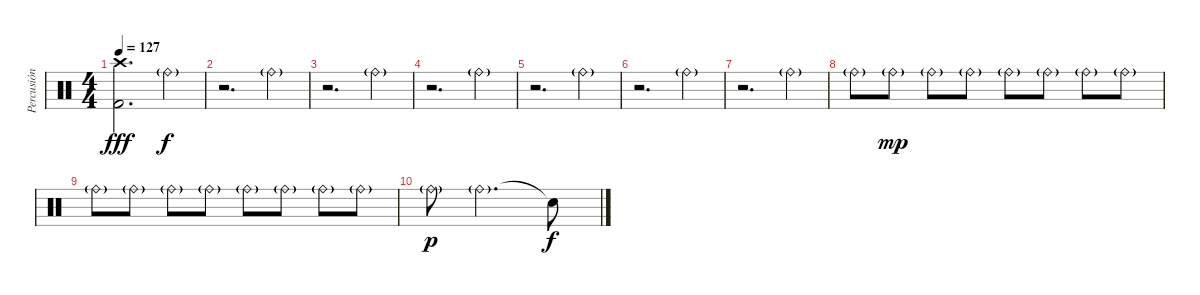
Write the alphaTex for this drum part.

\track ("Percusión" "Percusión") {instrument percussion}
\staff {score}
\articulation defaults
\ts (4 4)
\tempo 127
\clef neutral
\ks c
("Crash high (hit)" "Kick (hit) 2").2{d dy fff} "Ride (bell)"{g}.4{dy f} |
r.2{d} "Ride (bell)"{g}.4 |
r.2{d} "Ride (bell)"{g}.4 |
r.2{d} "Ride (bell)"{g}.4 |
r.2{d} "Ride (bell)"{g}.4 |
r.2{d} "Ride (bell)"{g}.4 |
r.2{d} "Ride (bell)"{g}.4 |
"Ride (bell)"{g}.8 "Ride (bell)"{g}.8{dy mp} "Ride (bell)"{g}.8 "Ride (bell)"{g}.8 "Ride (bell)"{g}.8 "Ride (bell)"{g}.8 "Ride (bell)"{g}.8 "Ride (bell)"{g}.8 |
"Ride (bell)"{g}.8 "Ride (bell)"{g}.8 "Ride (bell)"{g}.8 "Ride (bell)"{g}.8 "Ride (bell)"{g}.8 "Ride (bell)"{g}.8 "Ride (bell)"{g}.8 "Ride (bell)"{g}.8 |
"Ride (bell)"{g}.8{dy p} "Ride (bell)"{g}.2{d} "Snare (hit)"{t}.8{dy f}
